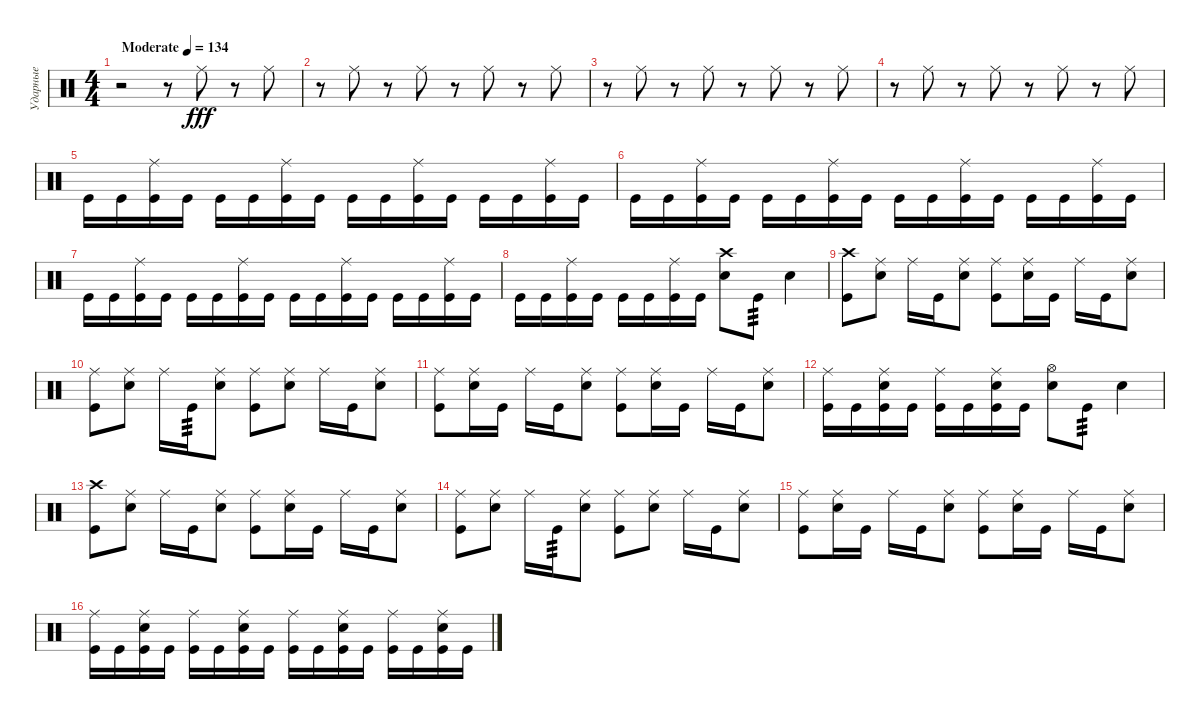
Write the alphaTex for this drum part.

\track ("Ударные" "Ударные") {instrument percussion}
\staff {score}
\articulation defaults
\ts (4 4)
\tempo (134 "Moderate")
\clef neutral
\ks c
r.2{dy fff} r.8 "Ride (middle)".8 r.8 "Ride (middle)".8 |
r.8 "Ride (middle)".8 r.8 "Ride (middle)".8 r.8 "Ride (middle)".8 r.8 "Ride (middle)".8 |
r.8 "Ride (middle)".8 r.8 "Ride (middle)".8 r.8 "Ride (middle)".8 r.8 "Ride (middle)".8 |
r.8 "Ride (middle)".8 r.8 "Ride (middle)".8 r.8 "Ride (middle)".8 r.8 "Ride (middle)".8 |
"Kick (hit)".16 "Kick (hit)".16 ("Kick (hit)" "Ride (middle)").16 "Kick (hit)".16 "Kick (hit)".16 "Kick (hit)".16 ("Kick (hit)" "Ride (middle)").16 "Kick (hit)".16 "Kick (hit)".16 "Kick (hit)".16 ("Kick (hit)" "Ride (middle)").16 "Kick (hit)".16 "Kick (hit)".16 "Kick (hit)".16 ("Kick (hit)" "Ride (middle)").16 "Kick (hit)".16 |
"Kick (hit)".16 "Kick (hit)".16 ("Kick (hit)" "Ride (middle)").16 "Kick (hit)".16 "Kick (hit)".16 "Kick (hit)".16 ("Kick (hit)" "Ride (middle)").16 "Kick (hit)".16 "Kick (hit)".16 "Kick (hit)".16 ("Kick (hit)" "Ride (middle)").16 "Kick (hit)".16 "Kick (hit)".16 "Kick (hit)".16 ("Kick (hit)" "Ride (middle)").16 "Kick (hit)".16 |
"Kick (hit)".16 "Kick (hit)".16 ("Kick (hit)" "Ride (middle)").16 "Kick (hit)".16 "Kick (hit)".16 "Kick (hit)".16 ("Kick (hit)" "Ride (middle)").16 "Kick (hit)".16 "Kick (hit)".16 "Kick (hit)".16 ("Kick (hit)" "Ride (middle)").16 "Kick (hit)".16 "Kick (hit)".16 "Kick (hit)".16 ("Kick (hit)" "Ride (middle)").16 "Kick (hit)".16 |
"Kick (hit)".16 "Kick (hit)".16 ("Kick (hit)" "Ride (middle)").16 "Kick (hit)".16 "Kick (hit)".16 "Kick (hit)".16 ("Kick (hit)" "Ride (middle)").16 "Kick (hit)".16 ("Crash high (hit)" "Snare (hit) 2").8 "Kick (hit)".8{tp 3} "Snare (hit) 2".4 |
("Kick (hit)" "Crash high (hit)").8 ("Ride (middle)" "Snare (hit) 2").8 "Ride (middle)".16 "Kick (hit)".16 ("Snare (hit) 2" "Ride (middle)").8 ("Kick (hit)" "Ride (middle)").8 ("Snare (hit) 2" "Ride (middle)").16 "Kick (hit)".16 "Ride (middle)".16 "Kick (hit)".16 ("Snare (hit) 2" "Ride (middle)").8 |
("Kick (hit)" "Ride (middle)").8 ("Ride (middle)" "Snare (hit) 2").8 "Ride (middle)".16 "Kick (hit)".16{tp 3} ("Snare (hit) 2" "Ride (middle)").8 ("Kick (hit)" "Ride (middle)").8 ("Ride (middle)" "Snare (hit) 2").8 "Ride (middle)".16 "Kick (hit)".16 ("Snare (hit) 2" "Ride (middle)").8 |
("Kick (hit)" "Ride (middle)").8 ("Snare (hit) 2" "Ride (middle)").16 "Kick (hit)".16 "Ride (middle)".16 "Kick (hit)".16 ("Snare (hit) 2" "Ride (middle)").8 ("Kick (hit)" "Ride (middle)").8 ("Snare (hit) 2" "Ride (middle)").16 "Kick (hit)".16 "Ride (middle)".16 "Kick (hit)".16 ("Snare (hit) 2" "Ride (middle)").8 |
("Kick (hit)" "Ride (middle)").16 "Kick (hit)".16 ("Kick (hit)" "Snare (hit) 2" "Ride (middle)").16 "Kick (hit)".16 ("Ride (middle)" "Kick (hit)").16 "Kick (hit)".16 ("Kick (hit)" "Snare (hit) 2" "Ride (middle)").16 "Kick (hit)".16 ("Snare (hit) 2" "Hi-Hat (open)").8 "Kick (hit)".8{tp 3} "Snare (hit) 2".4 |
("Kick (hit)" "Crash high (hit)").8 ("Ride (middle)" "Snare (hit) 2").8 "Ride (middle)".16 "Kick (hit)".16 ("Snare (hit) 2" "Ride (middle)").8 ("Kick (hit)" "Ride (middle)").8 ("Snare (hit) 2" "Ride (middle)").16 "Kick (hit)".16 "Ride (middle)".16 "Kick (hit)".16 ("Snare (hit) 2" "Ride (middle)").8 |
("Kick (hit)" "Ride (middle)").8 ("Ride (middle)" "Snare (hit) 2").8 "Ride (middle)".16 "Kick (hit)".16{tp 3} ("Snare (hit) 2" "Ride (middle)").8 ("Kick (hit)" "Ride (middle)").8 ("Ride (middle)" "Snare (hit) 2").8 "Ride (middle)".16 "Kick (hit)".16 ("Snare (hit) 2" "Ride (middle)").8 |
("Kick (hit)" "Ride (middle)").8 ("Snare (hit) 2" "Ride (middle)").16 "Kick (hit)".16 "Ride (middle)".16 "Kick (hit)".16 ("Snare (hit) 2" "Ride (middle)").8 ("Kick (hit)" "Ride (middle)").8 ("Snare (hit) 2" "Ride (middle)").16 "Kick (hit)".16 "Ride (middle)".16 "Kick (hit)".16 ("Snare (hit) 2" "Ride (middle)").8 |
("Kick (hit)" "Ride (middle)").16 "Kick (hit)".16 ("Kick (hit)" "Snare (hit) 2" "Ride (middle)").16 "Kick (hit)".16 ("Ride (middle)" "Kick (hit)").16 "Kick (hit)".16 ("Kick (hit)" "Snare (hit) 2" "Ride (middle)").16 "Kick (hit)".16 ("Ride (middle)" "Kick (hit)").16 "Kick (hit)".16 ("Kick (hit)" "Ride (middle)" "Snare (hit) 2").16 "Kick (hit)".16 ("Ride (middle)" "Kick (hit)").16 "Kick (hit)".16 ("Kick (hit)" "Snare (hit) 2" "Ride (middle)").16 "Kick (hit)".16
